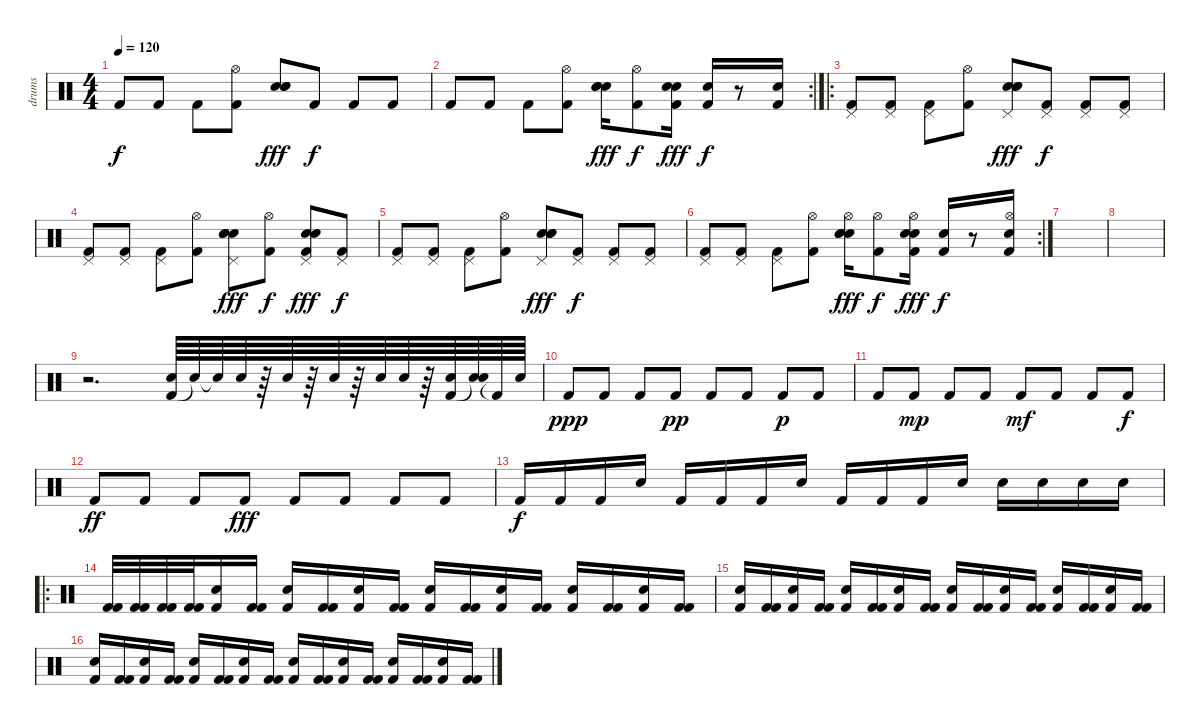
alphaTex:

\track ("drums" "drums") {instrument percussion}
\staff {score}
\articulation defaults
\ts (4 4)
\tempo 120
\clef neutral
\ks c "Kick (hit) 2".8{dy f} "Kick (hit) 2".8 "Kick (hit) 2".8
("Hi-Hat (open)" "Kick (hit) 2").8 ("Snare (hit) 2" "Electric Snare (hit)" "Snare (hit) 2").8{dy fff} "Kick (hit) 2".8{dy f} "Kick (hit) 2".8 "Kick (hit) 2".8 |
\rc 2 "Kick (hit) 2".8 "Kick (hit) 2".8 "Kick (hit) 2".8
("Hi-Hat (open)" "Kick (hit) 2").8 ("Snare (hit) 2" "Electric Snare (hit)" "Snare (hit) 2").16{dy fff} ("Hi-Hat (open)" "Kick (hit) 2").8{dy f} ("Snare (hit) 2" "Electric Snare (hit)" "Kick (hit) 2").16{dy fff} ("Electric Snare (hit)" "Kick (hit) 2").16{dy f} r.8 ("Electric Snare (hit)" "Kick (hit) 2").16 |
\ro
("Pedal Hi-Hat (hit)" "Kick (hit) 2").8 ("Pedal Hi-Hat (hit)" "Kick (hit) 2").8 ("Pedal Hi-Hat (hit)" "Kick (hit) 2").8 ("Hi-Hat (open)" "Kick (hit) 2").8 ("Pedal Hi-Hat (hit)" "Snare (hit) 2" "Electric Snare (hit)" "Snare (hit) 2").8{dy fff} ("Pedal Hi-Hat (hit)" "Kick (hit) 2").8{dy f} ("Pedal Hi-Hat (hit)" "Kick (hit) 2").8 ("Pedal Hi-Hat (hit)" "Kick (hit) 2").8 |
("Pedal Hi-Hat (hit)" "Kick (hit) 2").8 ("Pedal Hi-Hat (hit)" "Kick (hit) 2").8 ("Pedal Hi-Hat (hit)" "Kick (hit) 2").8 ("Hi-Hat (open)" "Kick (hit) 2").8 ("Pedal Hi-Hat (hit)" "Snare (hit) 2" "Electric Snare (hit)" "Snare (hit) 2").8{dy fff} ("Hi-Hat (open)" "Kick (hit) 2").8{dy f} ("Pedal Hi-Hat (hit)" "Snare (hit) 2" "Electric Snare (hit)" "Kick (hit) 2").8{dy fff} ("Pedal Hi-Hat (hit)" "Kick (hit) 2").8{dy f} |
("Pedal Hi-Hat (hit)" "Kick (hit) 2").8 ("Pedal Hi-Hat (hit)" "Kick (hit) 2").8 ("Pedal Hi-Hat (hit)" "Kick (hit) 2").8 ("Hi-Hat (open)" "Kick (hit) 2").8 ("Pedal Hi-Hat (hit)" "Snare (hit) 2" "Electric Snare (hit)" "Snare (hit) 2").8{dy fff} ("Pedal Hi-Hat (hit)" "Kick (hit) 2").8{dy f} ("Pedal Hi-Hat (hit)" "Kick (hit) 2").8 ("Pedal Hi-Hat (hit)" "Kick (hit) 2").8 |
\rc 2
("Pedal Hi-Hat (hit)" "Kick (hit) 2").8 ("Pedal Hi-Hat (hit)" "Kick (hit) 2").8 ("Pedal Hi-Hat (hit)" "Kick (hit) 2").8 ("Hi-Hat (open)" "Kick (hit) 2").8 ("Hi-Hat (open)" "Snare (hit) 2" "Electric Snare (hit)" "Snare (hit) 2").16{dy fff} ("Hi-Hat (open)" "Kick (hit) 2").8{dy f} ("Hi-Hat (open)" "Snare (hit) 2" "Electric Snare (hit)" "Kick (hit) 2").16{dy fff} ("Electric Snare (hit)" "Kick (hit) 2").16{dy f} r.8 ("Hi-Hat (open)" "Electric Snare (hit)" "Kick (hit) 2").16 |
|
|
r.2{d} ("Kick (hit) 2" "Electric Snare (hit)").64 "Snare (hit)"{t}.64 "Snare (hit)"{t}.64 "Electric Snare (hit)".64 r.64 "Electric Snare (hit)".64 r.64 "Electric Snare (hit)".64 r.64 "Electric Snare (hit)".64 "Electric Snare (hit)".64 r.64 ("Kick (hit) 2" "Electric Snare (hit)").64 ("Snare (hit)"{t} "Electric Snare (hit)").64 "Kick (hit) 2"{t}.64 "Electric Snare (hit)".64 |
"Kick (hit) 2".8{dy ppp} "Kick (hit) 2".8 "Kick (hit) 2".8 "Kick (hit) 2".8{dy pp} "Kick (hit) 2".8 "Kick (hit) 2".8 "Kick (hit) 2".8{dy p} "Kick (hit) 2".8 |
"Kick (hit) 2".8 "Kick (hit) 2".8{dy mp} "Kick (hit) 2".8 "Kick (hit) 2".8 "Kick (hit) 2".8{dy mf} "Kick (hit) 2".8 "Kick (hit) 2".8 "Kick (hit) 2".8{dy f} |
"Kick (hit) 2".8{dy ff} "Kick (hit) 2".8 "Kick (hit) 2".8 "Kick (hit) 2".8{dy fff} "Kick (hit) 2".8 "Kick (hit) 2".8 "Kick (hit) 2".8 "Kick (hit) 2".8 |
"Kick (hit) 2".16{dy f} "Kick (hit) 2".16 "Kick (hit) 2".16 "Electric Snare (hit)".16 "Kick (hit) 2".16 "Kick (hit) 2".16 "Kick (hit) 2".16 "Electric Snare (hit)".16 "Kick (hit) 2".16 "Kick (hit) 2".16 "Kick (hit) 2".16 "Electric Snare (hit)".16 "Electric Snare (hit)".16 "Electric Snare (hit)".16 "Electric Snare (hit)".16 "Electric Snare (hit)".16 |
\ro
("Kick (hit) 2" "Kick (hit) 2").32 ("Kick (hit) 2" "Kick (hit) 2").32 ("Kick (hit) 2" "Kick (hit) 2").32 ("Kick (hit) 2" "Kick (hit) 2").32 ("Kick (hit) 2" "Electric Snare (hit)").16 ("Kick (hit) 2" "Kick (hit) 2").16 ("Kick (hit) 2" "Electric Snare (hit)").16 ("Kick (hit) 2" "Kick (hit) 2").16 ("Kick (hit) 2" "Electric Snare (hit)").16 ("Kick (hit) 2" "Kick (hit) 2").16 ("Kick (hit) 2" "Electric Snare (hit)").16 ("Kick (hit) 2" "Kick (hit) 2").16 ("Kick (hit) 2" "Electric Snare (hit)").16 ("Kick (hit) 2" "Kick (hit) 2").16 ("Kick (hit) 2" "Electric Snare (hit)").16 ("Kick (hit) 2" "Kick (hit) 2").16 ("Kick (hit) 2" "Electric Snare (hit)").16 ("Kick (hit) 2" "Kick (hit) 2").16 |
("Kick (hit) 2" "Electric Snare (hit)").16 ("Kick (hit) 2" "Kick (hit) 2").16 ("Kick (hit) 2" "Electric Snare (hit)").16 ("Kick (hit) 2" "Kick (hit) 2").16 ("Kick (hit) 2" "Electric Snare (hit)").16 ("Kick (hit) 2" "Kick (hit) 2").16 ("Kick (hit) 2" "Electric Snare (hit)").16 ("Kick (hit) 2" "Kick (hit) 2").16 ("Kick (hit) 2" "Electric Snare (hit)").16 ("Kick (hit) 2" "Kick (hit) 2").16 ("Kick (hit) 2" "Electric Snare (hit)").16 ("Kick (hit) 2" "Kick (hit) 2").16 ("Kick (hit) 2" "Electric Snare (hit)").16 ("Kick (hit) 2" "Kick (hit) 2").16 ("Kick (hit) 2" "Electric Snare (hit)").16 ("Kick (hit) 2" "Kick (hit) 2").16 |
("Kick (hit) 2" "Electric Snare (hit)").16 ("Kick (hit) 2" "Kick (hit) 2").16 ("Kick (hit) 2" "Electric Snare (hit)").16 ("Kick (hit) 2" "Kick (hit) 2").16 ("Kick (hit) 2" "Electric Snare (hit)").16 ("Kick (hit) 2" "Kick (hit) 2").16 ("Kick (hit) 2" "Electric Snare (hit)").16 ("Kick (hit) 2" "Kick (hit) 2").16 ("Kick (hit) 2" "Electric Snare (hit)").16 ("Kick (hit) 2" "Kick (hit) 2").16 ("Kick (hit) 2" "Electric Snare (hit)").16 ("Kick (hit) 2" "Kick (hit) 2").16 ("Kick (hit) 2" "Electric Snare (hit)").16 ("Kick (hit) 2" "Kick (hit) 2").16 ("Kick (hit) 2" "Electric Snare (hit)").16 ("Kick (hit) 2" "Kick (hit) 2").16
